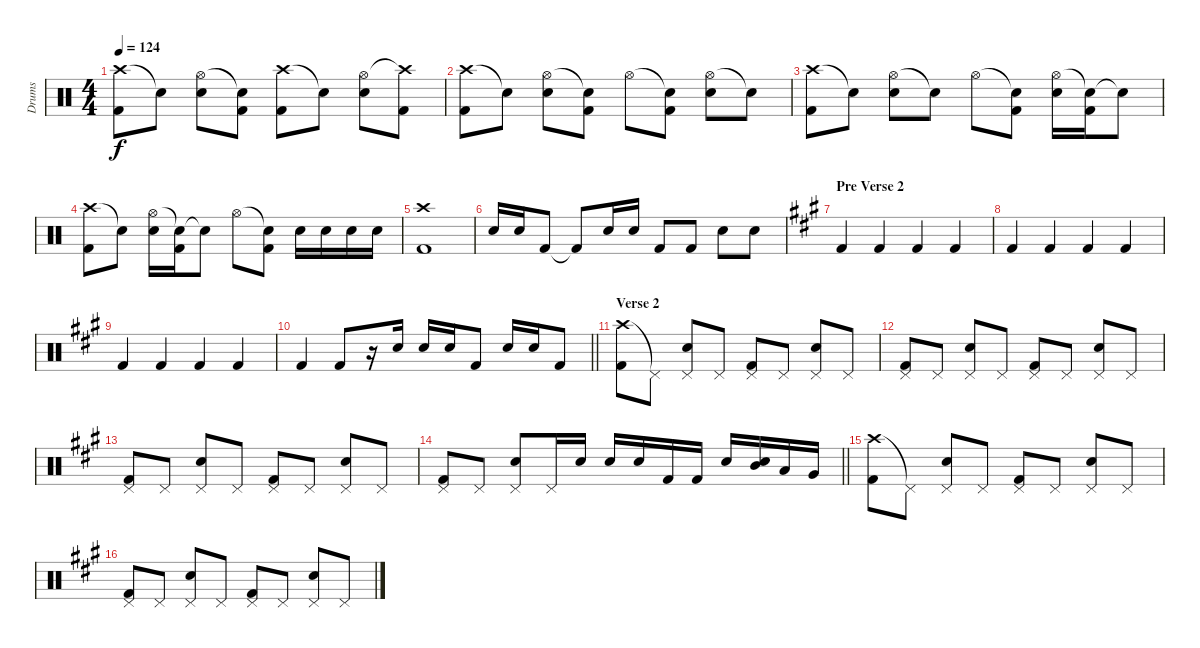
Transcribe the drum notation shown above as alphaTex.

\track ("Drums" "Drums") {instrument percussion}
\staff {score}
\articulation defaults
\ts (4 4)
\tempo 124
\clef neutral
\ks aminor
("Crash high (hit)" "Kick (hit) 2").8{dy f} "Snare (hit)"{t}.8 ("Hi-Hat (open)" "Electric Snare (hit)").8 ("Snare (hit)"{t} "Kick (hit) 2").8 ("Crash high (hit)" "Kick (hit) 2").8 "Snare (hit)"{t}.8 ("Hi-Hat (open)" "Electric Snare (hit)").8 ("Crash high (hit)"{t} "Kick (hit) 2").8 |
("Crash high (hit)" "Kick (hit) 2").8 "Snare (hit)"{t}.8 ("Hi-Hat (open)" "Electric Snare (hit)").8 ("Snare (hit)"{t} "Kick (hit) 2").8 "Hi-Hat (open)".8 ("Snare (hit)"{t} "Kick (hit) 2").8 ("Hi-Hat (open)" "Electric Snare (hit)").8 "Snare (hit)"{t}.8 |
("Crash high (hit)" "Kick (hit) 2").8 "Snare (hit)"{t}.8 ("Hi-Hat (open)" "Electric Snare (hit)").8 "Snare (hit)"{t}.8 "Hi-Hat (open)".8 ("Snare (hit)"{t} "Kick (hit) 2").8 ("Hi-Hat (open)" "Electric Snare (hit)").16 ("Snare (hit)"{t} "Kick (hit) 2").16 "Snare (hit)"{t}.8 |
("Crash high (hit)" "Kick (hit) 2").8 "Snare (hit)"{t}.8 ("Hi-Hat (open)" "Electric Snare (hit)").16 ("Snare (hit)"{t} "Kick (hit) 2").16 "Snare (hit)"{t}.8 "Hi-Hat (open)".8 ("Snare (hit)"{t} "Kick (hit) 2").8 "Electric Snare (hit)".16 "Electric Snare (hit)".16 "Electric Snare (hit)".16 "Electric Snare (hit)".16 |
("Crash high (hit)" "Kick (hit) 2").1 |
"Electric Snare (hit)".16 "Electric Snare (hit)".16 "Kick (hit) 2".8 "Kick (hit) 2"{t}.8 "Electric Snare (hit)".16 "Electric Snare (hit)".16 "Kick (hit) 2".8 "Kick (hit) 2".8 "Electric Snare (hit)".8 "Electric Snare (hit)".8 |
\section ("" "Pre Verse 2")
\ks a "Kick (hit) 2".4 "Kick (hit) 2".4 "Kick (hit) 2".4 "Kick (hit) 2".4
|
"Kick (hit) 2".4 "Kick (hit) 2".4 "Kick (hit) 2".4 "Kick (hit) 2".4 |
"Kick (hit) 2".4 "Kick (hit) 2".4 "Kick (hit) 2".4 "Kick (hit) 2".4 |
\barLineRight lightlight "Kick (hit) 2".4 "Kick (hit) 2".8
r.16 "Electric Snare (hit)".16 "Electric Snare (hit)".16 "Electric Snare (hit)".16 "Kick (hit) 2".8 "Electric Snare (hit)".16 "Electric Snare (hit)".16 "Kick (hit) 2".8 |
\section ("" "Verse 2")
("Crash high (hit)" "Kick (hit) 2").8 "Pedal Hi-Hat (hit)"{t}.8 ("Pedal Hi-Hat (hit)" "Electric Snare (hit)").8 "Pedal Hi-Hat (hit)".8 ("Pedal Hi-Hat (hit)" "Kick (hit) 2").8 "Pedal Hi-Hat (hit)".8 ("Pedal Hi-Hat (hit)" "Electric Snare (hit)").8 "Pedal Hi-Hat (hit)".8 |
("Pedal Hi-Hat (hit)" "Kick (hit) 2").8 "Pedal Hi-Hat (hit)".8 ("Pedal Hi-Hat (hit)" "Electric Snare (hit)").8 "Pedal Hi-Hat (hit)".8 ("Pedal Hi-Hat (hit)" "Kick (hit) 2").8 "Pedal Hi-Hat (hit)".8 ("Pedal Hi-Hat (hit)" "Electric Snare (hit)").8 "Pedal Hi-Hat (hit)".8 |
("Pedal Hi-Hat (hit)" "Kick (hit) 2").8 "Pedal Hi-Hat (hit)".8 ("Pedal Hi-Hat (hit)" "Electric Snare (hit)").8 "Pedal Hi-Hat (hit)".8 ("Pedal Hi-Hat (hit)" "Kick (hit) 2").8 "Pedal Hi-Hat (hit)".8 ("Pedal Hi-Hat (hit)" "Electric Snare (hit)").8 "Pedal Hi-Hat (hit)".8 |
\barLineRight lightlight
("Pedal Hi-Hat (hit)" "Kick (hit) 2").8 "Pedal Hi-Hat (hit)".8 ("Pedal Hi-Hat (hit)" "Electric Snare (hit)").8 "Pedal Hi-Hat (hit)".16 "Electric Snare (hit)".16 "Electric Snare (hit)".16 "Electric Snare (hit)".16 "Kick (hit) 2".16 "Kick (hit) 2".16 "Electric Snare (hit)".16 ("Electric Snare (hit)" "Mid Tom (hit)").16 "Low Tom (hit)".16 "Very Low Tom (hit)".16 |
("Crash high (hit)" "Kick (hit) 2").8 "Pedal Hi-Hat (hit)"{t}.8 ("Pedal Hi-Hat (hit)" "Electric Snare (hit)").8 "Pedal Hi-Hat (hit)".8 ("Pedal Hi-Hat (hit)" "Kick (hit) 2").8 "Pedal Hi-Hat (hit)".8 ("Pedal Hi-Hat (hit)" "Electric Snare (hit)").8 "Pedal Hi-Hat (hit)".8 |
("Pedal Hi-Hat (hit)" "Kick (hit) 2").8 "Pedal Hi-Hat (hit)".8 ("Pedal Hi-Hat (hit)" "Electric Snare (hit)").8 "Pedal Hi-Hat (hit)".8 ("Pedal Hi-Hat (hit)" "Kick (hit) 2").8 "Pedal Hi-Hat (hit)".8 ("Pedal Hi-Hat (hit)" "Electric Snare (hit)").8 "Pedal Hi-Hat (hit)".8
